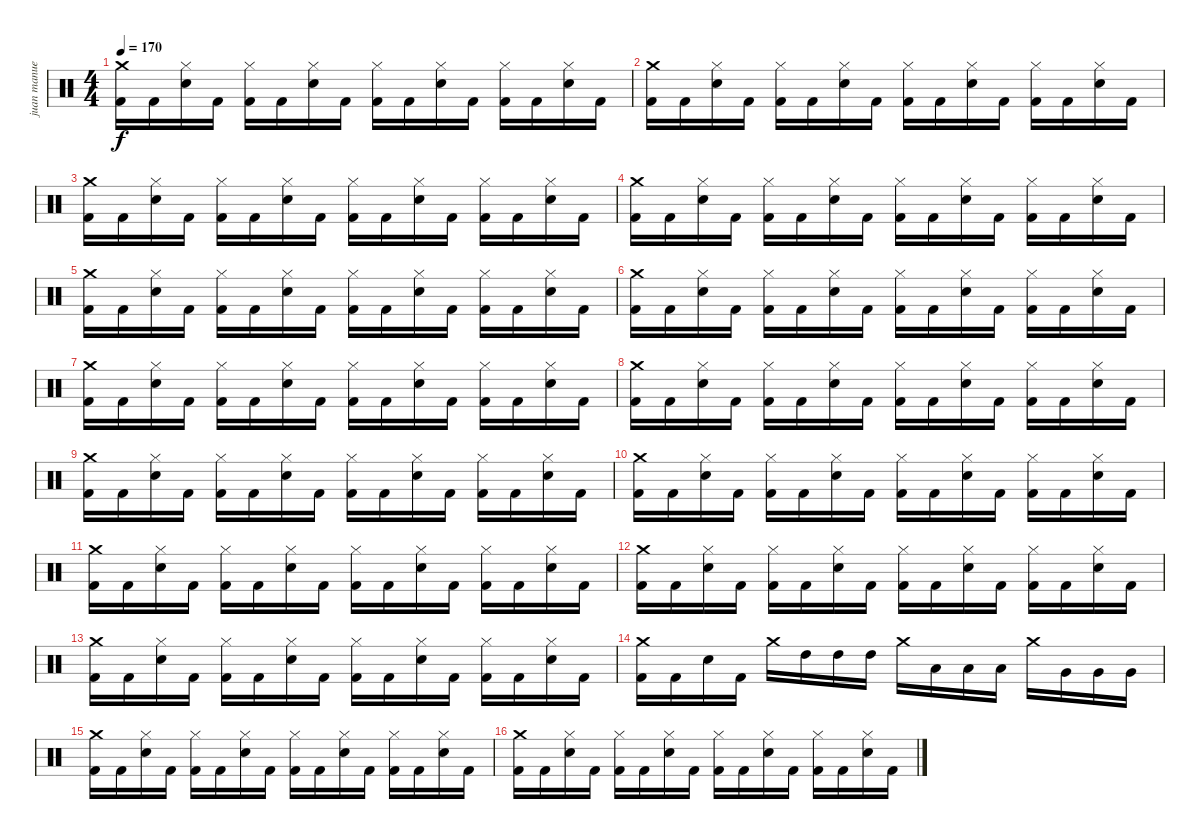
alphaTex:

\track ("juan manuel" "juan manue") {instrument percussion}
\staff {score}
\articulation defaults
\ts (4 4)
\tempo 170
\clef neutral
\ks c
("Crash medium (hit)" "Kick (hit) 2").16{dy f} "Kick (hit) 2".16 ("Hi-Hat (closed)" "Electric Snare (hit)").16 "Kick (hit) 2".16 ("Hi-Hat (closed)" "Kick (hit) 2").16 "Kick (hit) 2".16 ("Hi-Hat (closed)" "Electric Snare (hit)").16 "Kick (hit) 2".16 ("Hi-Hat (closed)" "Kick (hit) 2").16 "Kick (hit) 2".16 ("Hi-Hat (closed)" "Electric Snare (hit)").16 "Kick (hit) 2".16 ("Hi-Hat (closed)" "Kick (hit) 2").16 "Kick (hit) 2".16 ("Hi-Hat (closed)" "Electric Snare (hit)").16 "Kick (hit) 2".16 |
("Crash medium (hit)" "Kick (hit) 2").16 "Kick (hit) 2".16 ("Hi-Hat (closed)" "Electric Snare (hit)").16 "Kick (hit) 2".16 ("Hi-Hat (closed)" "Kick (hit) 2").16 "Kick (hit) 2".16 ("Hi-Hat (closed)" "Electric Snare (hit)").16 "Kick (hit) 2".16 ("Hi-Hat (closed)" "Kick (hit) 2").16 "Kick (hit) 2".16 ("Hi-Hat (closed)" "Electric Snare (hit)").16 "Kick (hit) 2".16 ("Hi-Hat (closed)" "Kick (hit) 2").16 "Kick (hit) 2".16 ("Hi-Hat (closed)" "Electric Snare (hit)").16 "Kick (hit) 2".16 |
("Crash medium (hit)" "Kick (hit) 2").16 "Kick (hit) 2".16 ("Hi-Hat (closed)" "Electric Snare (hit)").16 "Kick (hit) 2".16 ("Hi-Hat (closed)" "Kick (hit) 2").16 "Kick (hit) 2".16 ("Hi-Hat (closed)" "Electric Snare (hit)").16 "Kick (hit) 2".16 ("Hi-Hat (closed)" "Kick (hit) 2").16 "Kick (hit) 2".16 ("Hi-Hat (closed)" "Electric Snare (hit)").16 "Kick (hit) 2".16 ("Hi-Hat (closed)" "Kick (hit) 2").16 "Kick (hit) 2".16 ("Hi-Hat (closed)" "Electric Snare (hit)").16 "Kick (hit) 2".16 |
("Crash medium (hit)" "Kick (hit) 2").16 "Kick (hit) 2".16 ("Hi-Hat (closed)" "Electric Snare (hit)").16 "Kick (hit) 2".16 ("Hi-Hat (closed)" "Kick (hit) 2").16 "Kick (hit) 2".16 ("Hi-Hat (closed)" "Electric Snare (hit)").16 "Kick (hit) 2".16 ("Hi-Hat (closed)" "Kick (hit) 2").16 "Kick (hit) 2".16 ("Hi-Hat (closed)" "Electric Snare (hit)").16 "Kick (hit) 2".16 ("Hi-Hat (closed)" "Kick (hit) 2").16 "Kick (hit) 2".16 ("Hi-Hat (closed)" "Electric Snare (hit)").16 "Kick (hit) 2".16 |
("Crash medium (hit)" "Kick (hit) 2").16 "Kick (hit) 2".16 ("Hi-Hat (closed)" "Electric Snare (hit)").16 "Kick (hit) 2".16 ("Hi-Hat (closed)" "Kick (hit) 2").16 "Kick (hit) 2".16 ("Hi-Hat (closed)" "Electric Snare (hit)").16 "Kick (hit) 2".16 ("Hi-Hat (closed)" "Kick (hit) 2").16 "Kick (hit) 2".16 ("Hi-Hat (closed)" "Electric Snare (hit)").16 "Kick (hit) 2".16 ("Hi-Hat (closed)" "Kick (hit) 2").16 "Kick (hit) 2".16 ("Hi-Hat (closed)" "Electric Snare (hit)").16 "Kick (hit) 2".16 |
("Crash medium (hit)" "Kick (hit) 2").16 "Kick (hit) 2".16 ("Hi-Hat (closed)" "Electric Snare (hit)").16 "Kick (hit) 2".16 ("Hi-Hat (closed)" "Kick (hit) 2").16 "Kick (hit) 2".16 ("Hi-Hat (closed)" "Electric Snare (hit)").16 "Kick (hit) 2".16 ("Hi-Hat (closed)" "Kick (hit) 2").16 "Kick (hit) 2".16 ("Hi-Hat (closed)" "Electric Snare (hit)").16 "Kick (hit) 2".16 ("Hi-Hat (closed)" "Kick (hit) 2").16 "Kick (hit) 2".16 ("Hi-Hat (closed)" "Electric Snare (hit)").16 "Kick (hit) 2".16 |
("Crash medium (hit)" "Kick (hit) 2").16 "Kick (hit) 2".16 ("Hi-Hat (closed)" "Electric Snare (hit)").16 "Kick (hit) 2".16 ("Hi-Hat (closed)" "Kick (hit) 2").16 "Kick (hit) 2".16 ("Hi-Hat (closed)" "Electric Snare (hit)").16 "Kick (hit) 2".16 ("Hi-Hat (closed)" "Kick (hit) 2").16 "Kick (hit) 2".16 ("Hi-Hat (closed)" "Electric Snare (hit)").16 "Kick (hit) 2".16 ("Hi-Hat (closed)" "Kick (hit) 2").16 "Kick (hit) 2".16 ("Hi-Hat (closed)" "Electric Snare (hit)").16 "Kick (hit) 2".16 |
("Crash medium (hit)" "Kick (hit) 2").16 "Kick (hit) 2".16 ("Hi-Hat (closed)" "Electric Snare (hit)").16 "Kick (hit) 2".16 ("Hi-Hat (closed)" "Kick (hit) 2").16 "Kick (hit) 2".16 ("Hi-Hat (closed)" "Electric Snare (hit)").16 "Kick (hit) 2".16 ("Hi-Hat (closed)" "Kick (hit) 2").16 "Kick (hit) 2".16 ("Hi-Hat (closed)" "Electric Snare (hit)").16 "Kick (hit) 2".16 ("Hi-Hat (closed)" "Kick (hit) 2").16 "Kick (hit) 2".16 ("Hi-Hat (closed)" "Electric Snare (hit)").16 "Kick (hit) 2".16 |
("Crash medium (hit)" "Kick (hit) 2").16 "Kick (hit) 2".16 ("Hi-Hat (closed)" "Electric Snare (hit)").16 "Kick (hit) 2".16 ("Hi-Hat (closed)" "Kick (hit) 2").16 "Kick (hit) 2".16 ("Hi-Hat (closed)" "Electric Snare (hit)").16 "Kick (hit) 2".16 ("Hi-Hat (closed)" "Kick (hit) 2").16 "Kick (hit) 2".16 ("Hi-Hat (closed)" "Electric Snare (hit)").16 "Kick (hit) 2".16 ("Hi-Hat (closed)" "Kick (hit) 2").16 "Kick (hit) 2".16 ("Hi-Hat (closed)" "Electric Snare (hit)").16 "Kick (hit) 2".16 |
("Crash medium (hit)" "Kick (hit) 2").16 "Kick (hit) 2".16 ("Hi-Hat (closed)" "Electric Snare (hit)").16 "Kick (hit) 2".16 ("Hi-Hat (closed)" "Kick (hit) 2").16 "Kick (hit) 2".16 ("Hi-Hat (closed)" "Electric Snare (hit)").16 "Kick (hit) 2".16 ("Hi-Hat (closed)" "Kick (hit) 2").16 "Kick (hit) 2".16 ("Hi-Hat (closed)" "Electric Snare (hit)").16 "Kick (hit) 2".16 ("Hi-Hat (closed)" "Kick (hit) 2").16 "Kick (hit) 2".16 ("Hi-Hat (closed)" "Electric Snare (hit)").16 "Kick (hit) 2".16 |
("Crash medium (hit)" "Kick (hit) 2").16 "Kick (hit) 2".16 ("Hi-Hat (closed)" "Electric Snare (hit)").16 "Kick (hit) 2".16 ("Hi-Hat (closed)" "Kick (hit) 2").16 "Kick (hit) 2".16 ("Hi-Hat (closed)" "Electric Snare (hit)").16 "Kick (hit) 2".16 ("Hi-Hat (closed)" "Kick (hit) 2").16 "Kick (hit) 2".16 ("Hi-Hat (closed)" "Electric Snare (hit)").16 "Kick (hit) 2".16 ("Hi-Hat (closed)" "Kick (hit) 2").16 "Kick (hit) 2".16 ("Hi-Hat (closed)" "Electric Snare (hit)").16 "Kick (hit) 2".16 |
("Crash medium (hit)" "Kick (hit) 2").16 "Kick (hit) 2".16 ("Hi-Hat (closed)" "Electric Snare (hit)").16 "Kick (hit) 2".16 ("Hi-Hat (closed)" "Kick (hit) 2").16 "Kick (hit) 2".16 ("Hi-Hat (closed)" "Electric Snare (hit)").16 "Kick (hit) 2".16 ("Hi-Hat (closed)" "Kick (hit) 2").16 "Kick (hit) 2".16 ("Hi-Hat (closed)" "Electric Snare (hit)").16 "Kick (hit) 2".16 ("Hi-Hat (closed)" "Kick (hit) 2").16 "Kick (hit) 2".16 ("Hi-Hat (closed)" "Electric Snare (hit)").16 "Kick (hit) 2".16 |
("Crash medium (hit)" "Kick (hit) 2").16 "Kick (hit) 2".16 ("Hi-Hat (closed)" "Electric Snare (hit)").16 "Kick (hit) 2".16 ("Hi-Hat (closed)" "Kick (hit) 2").16 "Kick (hit) 2".16 ("Hi-Hat (closed)" "Electric Snare (hit)").16 "Kick (hit) 2".16 ("Hi-Hat (closed)" "Kick (hit) 2").16 "Kick (hit) 2".16 ("Hi-Hat (closed)" "Electric Snare (hit)").16 "Kick (hit) 2".16 ("Hi-Hat (closed)" "Kick (hit) 2").16 "Kick (hit) 2".16 ("Hi-Hat (closed)" "Electric Snare (hit)").16 "Kick (hit) 2".16 |
("Crash medium (hit)" "Kick (hit) 2").16 "Kick (hit) 2".16 "Electric Snare (hit)".16 "Kick (hit) 2".16 "Crash medium (hit)".16 "High Tom (hit)".16 "High Tom (hit)".16 "High Tom (hit)".16 "Crash medium (hit)".16 "Low Tom (hit)".16 "Low Tom (hit)".16 "Low Tom (hit)".16 "Crash medium (hit)".16 "Very Low Tom (hit)".16 "Very Low Tom (hit)".16 "Very Low Tom (hit)".16 |
("Crash medium (hit)" "Kick (hit) 2").16 "Kick (hit) 2".16 ("Hi-Hat (closed)" "Electric Snare (hit)").16 "Kick (hit) 2".16 ("Hi-Hat (closed)" "Kick (hit) 2").16 "Kick (hit) 2".16 ("Hi-Hat (closed)" "Electric Snare (hit)").16 "Kick (hit) 2".16 ("Hi-Hat (closed)" "Kick (hit) 2").16 "Kick (hit) 2".16 ("Hi-Hat (closed)" "Electric Snare (hit)").16 "Kick (hit) 2".16 ("Hi-Hat (closed)" "Kick (hit) 2").16 "Kick (hit) 2".16 ("Hi-Hat (closed)" "Electric Snare (hit)").16 "Kick (hit) 2".16 |
("Crash medium (hit)" "Kick (hit) 2").16 "Kick (hit) 2".16 ("Hi-Hat (closed)" "Electric Snare (hit)").16 "Kick (hit) 2".16 ("Hi-Hat (closed)" "Kick (hit) 2").16 "Kick (hit) 2".16 ("Hi-Hat (closed)" "Electric Snare (hit)").16 "Kick (hit) 2".16 ("Hi-Hat (closed)" "Kick (hit) 2").16 "Kick (hit) 2".16 ("Hi-Hat (closed)" "Electric Snare (hit)").16 "Kick (hit) 2".16 ("Hi-Hat (closed)" "Kick (hit) 2").16 "Kick (hit) 2".16 ("Hi-Hat (closed)" "Electric Snare (hit)").16 "Kick (hit) 2".16
